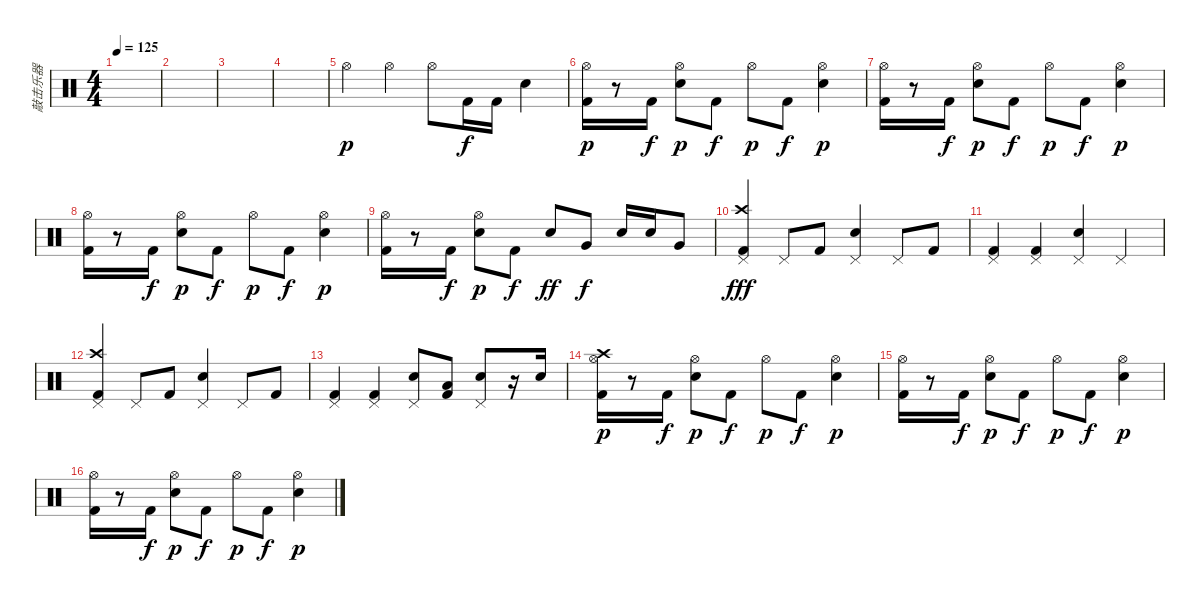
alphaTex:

\track ("敲击乐器" "敲击乐器") {instrument percussion}
\staff {score}
\articulation defaults
\ts (4 4)
\tempo 125
\clef neutral
\ks c
|
|
|
|
"Hi-Hat (open)".4{dy p} "Hi-Hat (open)".4 "Hi-Hat (open)".8 "Kick (hit) 2".16{dy f} "Kick (hit) 2".16 "Snare (hit) 2".4 |
("Hi-Hat (open)" "Kick (hit) 2").16{dy p} r.8 "Kick (hit) 2".16{dy f} ("Hi-Hat (open)" "Snare (hit) 2").8{dy p} "Kick (hit) 2".8{dy f} "Hi-Hat (open)".8{dy p} "Kick (hit) 2".8{dy f} ("Hi-Hat (open)" "Snare (hit) 2").4{dy p} |
("Hi-Hat (open)" "Kick (hit) 2").16 r.8 "Kick (hit) 2".16{dy f} ("Hi-Hat (open)" "Snare (hit) 2").8{dy p} "Kick (hit) 2".8{dy f} "Hi-Hat (open)".8{dy p} "Kick (hit) 2".8{dy f} ("Hi-Hat (open)" "Snare (hit) 2").4{dy p} |
("Hi-Hat (open)" "Kick (hit) 2").16 r.8 "Kick (hit) 2".16{dy f} ("Hi-Hat (open)" "Snare (hit) 2").8{dy p} "Kick (hit) 2".8{dy f} "Hi-Hat (open)".8{dy p} "Kick (hit) 2".8{dy f} ("Hi-Hat (open)" "Snare (hit) 2").4{dy p} |
("Hi-Hat (open)" "Kick (hit) 2").16 r.8 "Kick (hit) 2".16{dy f} ("Hi-Hat (open)" "Snare (hit) 2").8{dy p} "Kick (hit) 2".8{dy f} "Snare (hit) 2".8{dy ff} "Very Low Tom (hit)".8{dy f} "Snare (hit) 2".16 "Snare (hit) 2".16 "Very Low Tom (hit)".8 |
("Crash high (hit)" "Pedal Hi-Hat (hit)" "Kick (hit) 2").4{dy fff} "Pedal Hi-Hat (hit)".8 "Kick (hit) 2".8 ("Pedal Hi-Hat (hit)" "Snare (hit) 2").4 "Pedal Hi-Hat (hit)".8 "Kick (hit) 2".8 |
("Pedal Hi-Hat (hit)" "Kick (hit) 2").4 ("Pedal Hi-Hat (hit)" "Kick (hit) 2").4 ("Pedal Hi-Hat (hit)" "Snare (hit) 2").4 "Pedal Hi-Hat (hit)".4 |
("Crash high (hit)" "Pedal Hi-Hat (hit)" "Kick (hit) 2").4 "Pedal Hi-Hat (hit)".8 "Kick (hit) 2".8 ("Pedal Hi-Hat (hit)" "Snare (hit) 2").4 "Pedal Hi-Hat (hit)".8 "Kick (hit) 2".8 |
("Pedal Hi-Hat (hit)" "Kick (hit) 2").4 ("Pedal Hi-Hat (hit)" "Kick (hit) 2").4 ("Pedal Hi-Hat (hit)" "Snare (hit) 2").8 ("Low Tom (hit)" "Kick (hit) 2").8 ("Pedal Hi-Hat (hit)" "Snare (hit) 2").8 r.16 "Snare (hit) 2".16 |
("Crash high (hit)" "Hi-Hat (open)" "Kick (hit) 2").16{dy p} r.8 "Kick (hit) 2".16{dy f} ("Hi-Hat (open)" "Snare (hit) 2").8{dy p} "Kick (hit) 2".8{dy f} "Hi-Hat (open)".8{dy p} "Kick (hit) 2".8{dy f} ("Hi-Hat (open)" "Snare (hit) 2").4{dy p} |
("Hi-Hat (open)" "Kick (hit) 2").16 r.8 "Kick (hit) 2".16{dy f} ("Hi-Hat (open)" "Snare (hit) 2").8{dy p} "Kick (hit) 2".8{dy f} "Hi-Hat (open)".8{dy p} "Kick (hit) 2".8{dy f} ("Hi-Hat (open)" "Snare (hit) 2").4{dy p} |
("Hi-Hat (open)" "Kick (hit) 2").16 r.8 "Kick (hit) 2".16{dy f} ("Hi-Hat (open)" "Snare (hit) 2").8{dy p} "Kick (hit) 2".8{dy f} "Hi-Hat (open)".8{dy p} "Kick (hit) 2".8{dy f} ("Hi-Hat (open)" "Snare (hit) 2").4{dy p}
